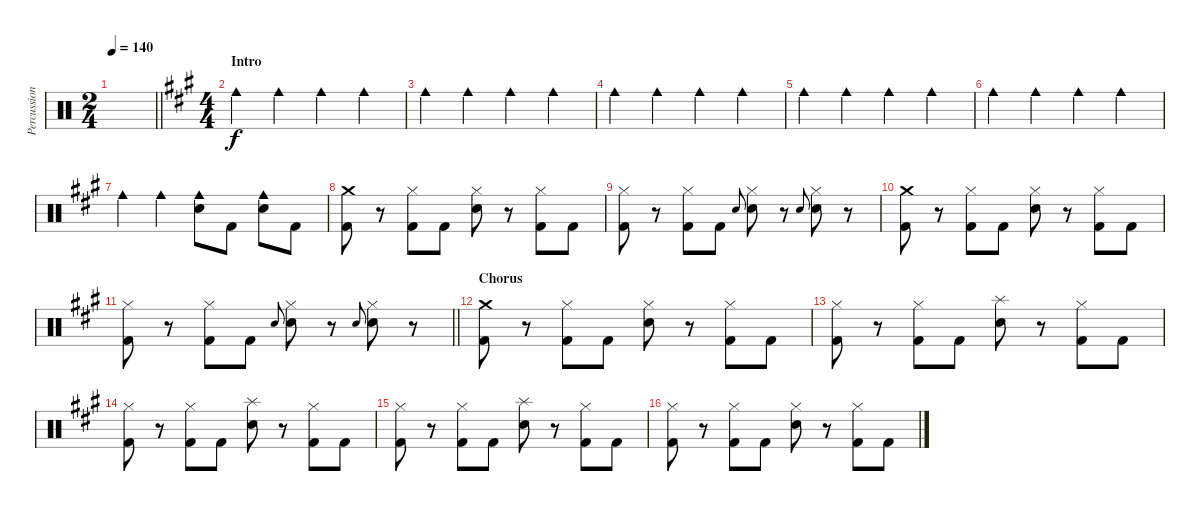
\track ("Percussion" "Percussion") {instrument percussion}
\staff {score}
\articulation defaults
\ts (2 4)
\tempo 140
\clef neutral
\barLineRight lightlight
\ks c
|
\ts (4 4)
\section ("" "Intro")
\ks a "Cowbell medium (hit)".4 "Cowbell medium (hit)".4 "Cowbell medium (hit)".4 "Cowbell medium (hit)".4
|
"Cowbell medium (hit)".4 "Cowbell medium (hit)".4 "Cowbell medium (hit)".4 "Cowbell medium (hit)".4 |
"Cowbell medium (hit)".4 "Cowbell medium (hit)".4 "Cowbell medium (hit)".4 "Cowbell medium (hit)".4 |
"Cowbell medium (hit)".4 "Cowbell medium (hit)".4 "Cowbell medium (hit)".4 "Cowbell medium (hit)".4 |
"Cowbell medium (hit)".4 "Cowbell medium (hit)".4 "Cowbell medium (hit)".4 "Cowbell medium (hit)".4 |
"Cowbell medium (hit)".4 "Cowbell medium (hit)".4 ("Cowbell medium (hit)" "Snare (hit) 2").8 "Kick (hit) 2".8 ("Cowbell medium (hit)" "Snare (hit) 2").8 "Kick (hit) 2".8 |
("Crash medium (hit)" "Kick (hit) 2").8 r.8 ("Hi-Hat (closed)" "Kick (hit) 2").8 "Kick (hit) 2".8 ("Hi-Hat (closed)" "Snare (hit) 2").8 r.8 ("Hi-Hat (closed)" "Kick (hit) 2").8 "Kick (hit) 2".8 |
("Hi-Hat (closed)" "Kick (hit) 2").8 r.8 ("Hi-Hat (closed)" "Kick (hit) 2").8 "Kick (hit) 2".8 "Snare (hit) 2".8{gr onbeat} ("Hi-Hat (closed)" "Snare (hit) 2").8 r.8 "Snare (hit) 2".8{gr onbeat} ("Hi-Hat (closed)" "Snare (hit) 2").8 r.8 |
("Crash medium (hit)" "Kick (hit) 2").8 r.8 ("Hi-Hat (closed)" "Kick (hit) 2").8 "Kick (hit) 2".8 ("Hi-Hat (closed)" "Snare (hit) 2").8 r.8 ("Hi-Hat (closed)" "Kick (hit) 2").8 "Kick (hit) 2".8 |
\barLineRight lightlight
("Hi-Hat (closed)" "Kick (hit) 2").8 r.8 ("Hi-Hat (closed)" "Kick (hit) 2").8 "Kick (hit) 2".8 "Snare (hit) 2".8{gr onbeat} ("Hi-Hat (closed)" "Snare (hit) 2").8 r.8 "Snare (hit) 2".8{gr onbeat} ("Hi-Hat (closed)" "Snare (hit) 2").8 r.8 |
\section ("" "Chorus")
("Crash medium (hit)" "Kick (hit) 2").8 r.8 ("Hi-Hat (closed)" "Kick (hit) 2").8 "Kick (hit) 2".8 ("Hi-Hat (closed)" "Snare (hit) 2").8 r.8 ("Hi-Hat (closed)" "Kick (hit) 2").8 "Kick (hit) 2".8 |
("Hi-Hat (closed)" "Kick (hit) 2").8 r.8 ("Hi-Hat (closed)" "Kick (hit) 2").8 "Kick (hit) 2".8 ("Splash (hit)" "Snare (hit) 2").8 r.8 ("Hi-Hat (closed)" "Kick (hit) 2").8 "Kick (hit) 2".8 |
("Hi-Hat (closed)" "Kick (hit) 2").8 r.8 ("Hi-Hat (closed)" "Kick (hit) 2").8 "Kick (hit) 2".8 ("Splash (hit)" "Snare (hit) 2").8 r.8 ("Hi-Hat (closed)" "Kick (hit) 2").8 "Kick (hit) 2".8 |
("Hi-Hat (closed)" "Kick (hit) 2").8 r.8 ("Hi-Hat (closed)" "Kick (hit) 2").8 "Kick (hit) 2".8 ("Splash (hit)" "Snare (hit) 2").8 r.8 ("Hi-Hat (closed)" "Kick (hit) 2").8 "Kick (hit) 2".8 |
("Hi-Hat (closed)" "Kick (hit) 2").8 r.8 ("Hi-Hat (closed)" "Kick (hit) 2").8 "Kick (hit) 2".8 ("Hi-Hat (closed)" "Snare (hit) 2").8 r.8 ("Hi-Hat (closed)" "Kick (hit) 2").8 "Kick (hit) 2".8
